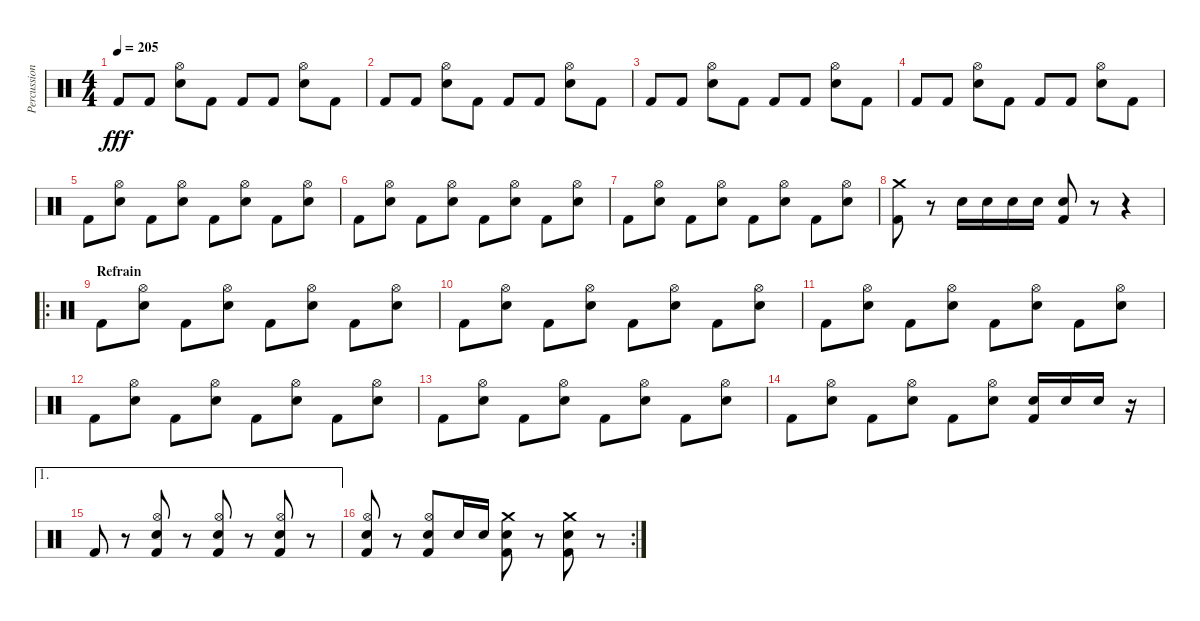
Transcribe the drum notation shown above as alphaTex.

\track ("Percussions" "Percussion") {instrument percussion}
\staff {score}
\articulation defaults
\ts (4 4)
\tempo 205
\clef neutral
\ks c "Kick (hit) 2".8{dy fff} "Kick (hit) 2".8
("Hi-Hat (open)" "Snare (hit) 2").8 "Kick (hit) 2".8 "Kick (hit) 2".8 "Kick (hit) 2".8 ("Hi-Hat (open)" "Snare (hit) 2").8 "Kick (hit) 2".8 |
"Kick (hit) 2".8 "Kick (hit) 2".8 ("Hi-Hat (open)" "Snare (hit) 2").8 "Kick (hit) 2".8 "Kick (hit) 2".8 "Kick (hit) 2".8 ("Hi-Hat (open)" "Snare (hit) 2").8 "Kick (hit) 2".8 |
"Kick (hit) 2".8 "Kick (hit) 2".8 ("Hi-Hat (open)" "Snare (hit) 2").8 "Kick (hit) 2".8 "Kick (hit) 2".8 "Kick (hit) 2".8 ("Hi-Hat (open)" "Snare (hit) 2").8 "Kick (hit) 2".8 |
"Kick (hit) 2".8 "Kick (hit) 2".8 ("Hi-Hat (open)" "Snare (hit) 2").8 "Kick (hit) 2".8 "Kick (hit) 2".8 "Kick (hit) 2".8 ("Hi-Hat (open)" "Snare (hit) 2").8 "Kick (hit) 2".8 |
"Kick (hit) 2".8 ("Hi-Hat (open)" "Snare (hit) 2").8 "Kick (hit) 2".8 ("Hi-Hat (open)" "Snare (hit) 2").8 "Kick (hit) 2".8 ("Hi-Hat (open)" "Snare (hit) 2").8 "Kick (hit) 2".8 ("Hi-Hat (open)" "Snare (hit) 2").8 |
"Kick (hit) 2".8 ("Hi-Hat (open)" "Snare (hit) 2").8 "Kick (hit) 2".8 ("Hi-Hat (open)" "Snare (hit) 2").8 "Kick (hit) 2".8 ("Hi-Hat (open)" "Snare (hit) 2").8 "Kick (hit) 2".8 ("Hi-Hat (open)" "Snare (hit) 2").8 |
"Kick (hit) 2".8 ("Hi-Hat (open)" "Snare (hit) 2").8 "Kick (hit) 2".8 ("Hi-Hat (open)" "Snare (hit) 2").8 "Kick (hit) 2".8 ("Hi-Hat (open)" "Snare (hit) 2").8 "Kick (hit) 2".8 ("Hi-Hat (open)" "Snare (hit) 2").8 |
("Crash medium (hit)" "Kick (hit) 2").8 r.8 "Snare (hit) 2".16 "Snare (hit) 2".16 "Snare (hit) 2".16 "Snare (hit) 2".16 ("Snare (hit) 2" "Kick (hit) 2").8 r.8 r.4 |
\ro
\section ("" "Refrain")
"Kick (hit) 2".8 ("Hi-Hat (open)" "Snare (hit) 2").8 "Kick (hit) 2".8 ("Hi-Hat (open)" "Snare (hit) 2").8 "Kick (hit) 2".8 ("Hi-Hat (open)" "Snare (hit) 2").8 "Kick (hit) 2".8 ("Hi-Hat (open)" "Snare (hit) 2").8 |
"Kick (hit) 2".8 ("Hi-Hat (open)" "Snare (hit) 2").8 "Kick (hit) 2".8 ("Hi-Hat (open)" "Snare (hit) 2").8 "Kick (hit) 2".8 ("Hi-Hat (open)" "Snare (hit) 2").8 "Kick (hit) 2".8 ("Hi-Hat (open)" "Snare (hit) 2").8 |
"Kick (hit) 2".8 ("Hi-Hat (open)" "Snare (hit) 2").8 "Kick (hit) 2".8 ("Hi-Hat (open)" "Snare (hit) 2").8 "Kick (hit) 2".8 ("Hi-Hat (open)" "Snare (hit) 2").8 "Kick (hit) 2".8 ("Hi-Hat (open)" "Snare (hit) 2").8 |
"Kick (hit) 2".8 ("Hi-Hat (open)" "Snare (hit) 2").8 "Kick (hit) 2".8 ("Hi-Hat (open)" "Snare (hit) 2").8 "Kick (hit) 2".8 ("Hi-Hat (open)" "Snare (hit) 2").8 "Kick (hit) 2".8 ("Hi-Hat (open)" "Snare (hit) 2").8 |
"Kick (hit) 2".8 ("Hi-Hat (open)" "Snare (hit) 2").8 "Kick (hit) 2".8 ("Hi-Hat (open)" "Snare (hit) 2").8 "Kick (hit) 2".8 ("Hi-Hat (open)" "Snare (hit) 2").8 "Kick (hit) 2".8 ("Hi-Hat (open)" "Snare (hit) 2").8 |
"Kick (hit) 2".8 ("Hi-Hat (open)" "Snare (hit) 2").8 "Kick (hit) 2".8 ("Hi-Hat (open)" "Snare (hit) 2").8 "Kick (hit) 2".8 ("Hi-Hat (open)" "Snare (hit) 2").8 ("Snare (hit) 2" "Kick (hit) 2").16 "Snare (hit) 2".16 "Snare (hit) 2".16 r.16 |
\ae 1 "Kick (hit) 2".8
r.8 ("Hi-Hat (open)" "Snare (hit) 2" "Kick (hit) 2").8 r.8 ("Hi-Hat (open)" "Snare (hit) 2" "Kick (hit) 2").8 r.8 ("Hi-Hat (open)" "Snare (hit) 2" "Kick (hit) 2").8 r.8 |
\rc 2
("Hi-Hat (open)" "Snare (hit) 2" "Kick (hit) 2").8 r.8 ("Hi-Hat (open)" "Snare (hit) 2" "Kick (hit) 2").8 "Snare (hit) 2".16 "Snare (hit) 2".16 ("Crash medium (hit)" "Snare (hit) 2" "Kick (hit) 2").8 r.8 ("Crash medium (hit)" "Snare (hit) 2" "Kick (hit) 2").8 r.8
